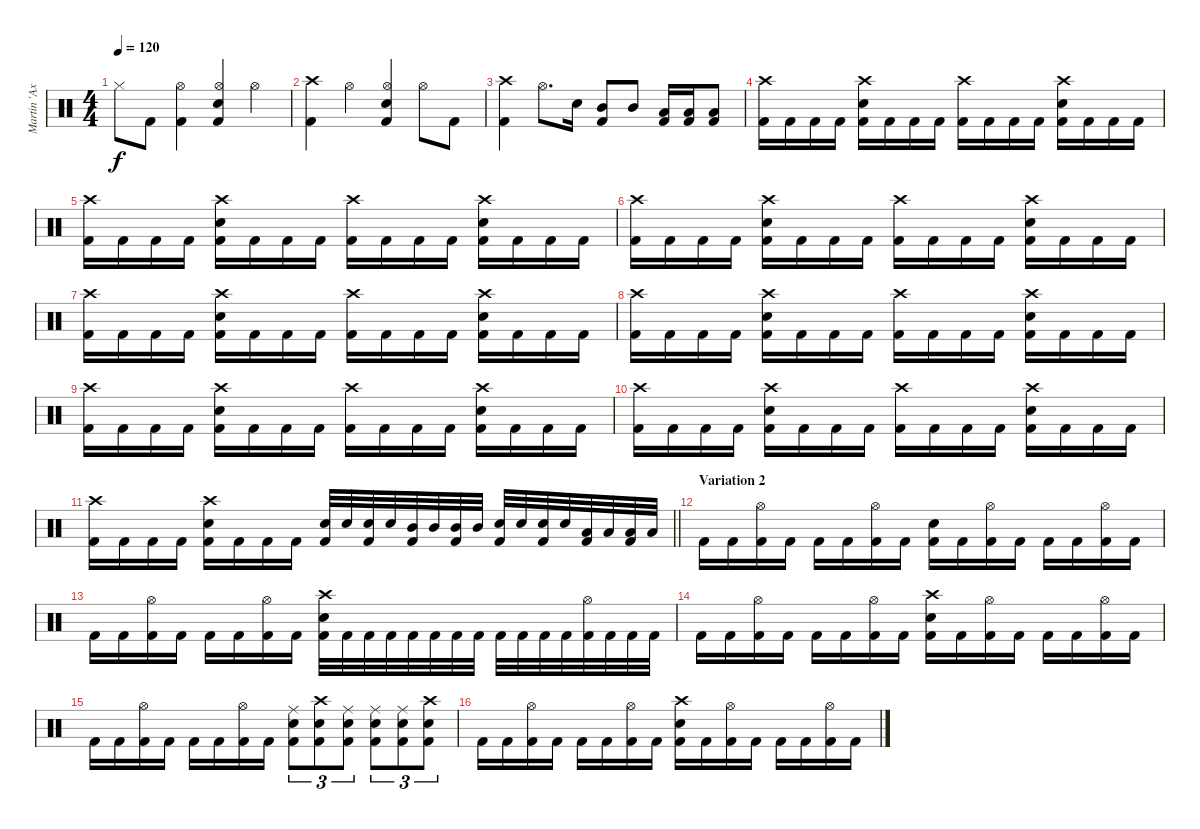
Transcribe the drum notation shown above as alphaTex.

\track ("Martin 'Axe' Axenrot" "Martin 'Ax") {instrument percussion}
\staff {score}
\articulation defaults
\ts (4 4)
\tempo 120
\clef neutral
\ks c "Hi-Hat (closed)".8{dy f} "Kick (hit) 2".8
("Hi-Hat (open)" "Kick (hit) 2").4 ("Hi-Hat (open)" "Snare (hit) 2" "Kick (hit) 2").4 "Hi-Hat (open)".4 |
("Crash high (hit)" "Kick (hit) 2").4 "Hi-Hat (open)".4 ("Hi-Hat (open)" "Snare (hit) 2" "Kick (hit) 2").4 "Hi-Hat (open)".8 "Kick (hit) 2".8 |
("Crash high (hit)" "Kick (hit) 2").4 "Hi-Hat (open)".8{d} "Snare (hit) 2".16 ("Mid Tom (hit)" "Kick (hit) 2").8 "Mid Tom (hit)".8 ("Low Tom (hit)" "Kick (hit) 2").16 ("Low Tom (hit)" "Kick (hit) 2").16 ("Low Tom (hit)" "Kick (hit) 2").8 |
("Crash high (hit)" "Kick (hit) 2").16 "Kick (hit) 2".16 "Kick (hit) 2".16 "Kick (hit) 2".16 ("Crash high (hit)" "Snare (hit) 2" "Kick (hit) 2").16 "Kick (hit) 2".16 "Kick (hit) 2".16 "Kick (hit) 2".16 ("Crash high (hit)" "Kick (hit) 2").16 "Kick (hit) 2".16 "Kick (hit) 2".16 "Kick (hit) 2".16 ("Crash high (hit)" "Snare (hit) 2" "Kick (hit) 2").16 "Kick (hit) 2".16 "Kick (hit) 2".16 "Kick (hit) 2".16 |
("Crash high (hit)" "Kick (hit) 2").16 "Kick (hit) 2".16 "Kick (hit) 2".16 "Kick (hit) 2".16 ("Crash high (hit)" "Snare (hit) 2" "Kick (hit) 2").16 "Kick (hit) 2".16 "Kick (hit) 2".16 "Kick (hit) 2".16 ("Crash high (hit)" "Kick (hit) 2").16 "Kick (hit) 2".16 "Kick (hit) 2".16 "Kick (hit) 2".16 ("Crash high (hit)" "Snare (hit) 2" "Kick (hit) 2").16 "Kick (hit) 2".16 "Kick (hit) 2".16 "Kick (hit) 2".16 |
("Crash high (hit)" "Kick (hit) 2").16 "Kick (hit) 2".16 "Kick (hit) 2".16 "Kick (hit) 2".16 ("Crash high (hit)" "Snare (hit) 2" "Kick (hit) 2").16 "Kick (hit) 2".16 "Kick (hit) 2".16 "Kick (hit) 2".16 ("Crash high (hit)" "Kick (hit) 2").16 "Kick (hit) 2".16 "Kick (hit) 2".16 "Kick (hit) 2".16 ("Crash high (hit)" "Snare (hit) 2" "Kick (hit) 2").16 "Kick (hit) 2".16 "Kick (hit) 2".16 "Kick (hit) 2".16 |
("Crash high (hit)" "Kick (hit) 2").16 "Kick (hit) 2".16 "Kick (hit) 2".16 "Kick (hit) 2".16 ("Crash high (hit)" "Snare (hit) 2" "Kick (hit) 2").16 "Kick (hit) 2".16 "Kick (hit) 2".16 "Kick (hit) 2".16 ("Crash high (hit)" "Kick (hit) 2").16 "Kick (hit) 2".16 "Kick (hit) 2".16 "Kick (hit) 2".16 ("Crash high (hit)" "Snare (hit) 2" "Kick (hit) 2").16 "Kick (hit) 2".16 "Kick (hit) 2".16 "Kick (hit) 2".16 |
("Crash high (hit)" "Kick (hit) 2").16 "Kick (hit) 2".16 "Kick (hit) 2".16 "Kick (hit) 2".16 ("Crash high (hit)" "Snare (hit) 2" "Kick (hit) 2").16 "Kick (hit) 2".16 "Kick (hit) 2".16 "Kick (hit) 2".16 ("Crash high (hit)" "Kick (hit) 2").16 "Kick (hit) 2".16 "Kick (hit) 2".16 "Kick (hit) 2".16 ("Crash high (hit)" "Snare (hit) 2" "Kick (hit) 2").16 "Kick (hit) 2".16 "Kick (hit) 2".16 "Kick (hit) 2".16 |
("Crash high (hit)" "Kick (hit) 2").16 "Kick (hit) 2".16 "Kick (hit) 2".16 "Kick (hit) 2".16 ("Crash high (hit)" "Snare (hit) 2" "Kick (hit) 2").16 "Kick (hit) 2".16 "Kick (hit) 2".16 "Kick (hit) 2".16 ("Crash high (hit)" "Kick (hit) 2").16 "Kick (hit) 2".16 "Kick (hit) 2".16 "Kick (hit) 2".16 ("Crash high (hit)" "Snare (hit) 2" "Kick (hit) 2").16 "Kick (hit) 2".16 "Kick (hit) 2".16 "Kick (hit) 2".16 |
("Crash high (hit)" "Kick (hit) 2").16 "Kick (hit) 2".16 "Kick (hit) 2".16 "Kick (hit) 2".16 ("Crash high (hit)" "Snare (hit) 2" "Kick (hit) 2").16 "Kick (hit) 2".16 "Kick (hit) 2".16 "Kick (hit) 2".16 ("Crash high (hit)" "Kick (hit) 2").16 "Kick (hit) 2".16 "Kick (hit) 2".16 "Kick (hit) 2".16 ("Crash high (hit)" "Snare (hit) 2" "Kick (hit) 2").16 "Kick (hit) 2".16 "Kick (hit) 2".16 "Kick (hit) 2".16 |
\barLineRight lightlight
("Crash high (hit)" "Kick (hit) 2").16 "Kick (hit) 2".16 "Kick (hit) 2".16 "Kick (hit) 2".16 ("Crash high (hit)" "Snare (hit) 2" "Kick (hit) 2").16 "Kick (hit) 2".16 "Kick (hit) 2".16 "Kick (hit) 2".16 ("Snare (hit) 2" "Kick (hit) 2").32 "Snare (hit) 2".32 ("Snare (hit) 2" "Kick (hit) 2").32 "Snare (hit) 2".32 ("Mid Tom (hit)" "Kick (hit) 2").32 "Mid Tom (hit)".32 ("Mid Tom (hit)" "Kick (hit) 2").32 "Mid Tom (hit)".32 ("Snare (hit) 2" "Kick (hit) 2").32 "Snare (hit) 2".32 ("Snare (hit) 2" "Kick (hit) 2").32 "Snare (hit) 2".32 ("Low Tom (hit)" "Kick (hit) 2").32 "Low Tom (hit)".32 ("Low Tom (hit)" "Kick (hit) 2").32 "Low Tom (hit)".32 |
\section ("" "Variation 2")
"Kick (hit) 2".16 "Kick (hit) 2".16 ("Hi-Hat (open)" "Kick (hit) 2").16 "Kick (hit) 2".16 "Kick (hit) 2".16 "Kick (hit) 2".16 ("Hi-Hat (open)" "Kick (hit) 2").16 "Kick (hit) 2".16 ("Snare (hit) 2" "Kick (hit) 2").16 "Kick (hit) 2".16 ("Hi-Hat (open)" "Kick (hit) 2").16 "Kick (hit) 2".16 "Kick (hit) 2".16 "Kick (hit) 2".16 ("Hi-Hat (open)" "Kick (hit) 2").16 "Kick (hit) 2".16 |
"Kick (hit) 2".16 "Kick (hit) 2".16 ("Hi-Hat (open)" "Kick (hit) 2").16 "Kick (hit) 2".16 "Kick (hit) 2".16 "Kick (hit) 2".16 ("Hi-Hat (open)" "Kick (hit) 2").16 "Kick (hit) 2".16 ("Crash high (hit)" "Snare (hit) 2" "Kick (hit) 2").32 "Kick (hit) 2".32 "Kick (hit) 2".32 "Kick (hit) 2".32 "Kick (hit) 2".32 "Kick (hit) 2".32 "Kick (hit) 2".32 "Kick (hit) 2".32 "Kick (hit) 2".32 "Kick (hit) 2".32 "Kick (hit) 2".32 "Kick (hit) 2".32 ("Hi-Hat (open)" "Kick (hit) 2").32 "Kick (hit) 2".32 "Kick (hit) 2".32 "Kick (hit) 2".32 |
"Kick (hit) 2".16 "Kick (hit) 2".16 ("Hi-Hat (open)" "Kick (hit) 2").16 "Kick (hit) 2".16 "Kick (hit) 2".16 "Kick (hit) 2".16 ("Hi-Hat (open)" "Kick (hit) 2").16 "Kick (hit) 2".16 ("Crash high (hit)" "Snare (hit) 2" "Kick (hit) 2").16 "Kick (hit) 2".16 ("Hi-Hat (open)" "Kick (hit) 2").16 "Kick (hit) 2".16 "Kick (hit) 2".16 "Kick (hit) 2".16 ("Hi-Hat (open)" "Kick (hit) 2").16 "Kick (hit) 2".16 |
"Kick (hit) 2".16 "Kick (hit) 2".16 ("Hi-Hat (open)" "Kick (hit) 2").16 "Kick (hit) 2".16 "Kick (hit) 2".16 "Kick (hit) 2".16 ("Hi-Hat (open)" "Kick (hit) 2").16 "Kick (hit) 2".16 ("Snare (hit) 2" "Ride (middle)" "Kick (hit) 2").8{tu (3 2)} ("Snare (hit) 2" "Crash high (hit)" "Kick (hit) 2").8{tu (3 2)} ("Snare (hit) 2" "Ride (middle)" "Kick (hit) 2").8{tu (3 2)} ("Snare (hit) 2" "Ride (middle)" "Kick (hit) 2").8{tu (3 2)} ("Snare (hit) 2" "Ride (middle)" "Kick (hit) 2").8{tu (3 2)} ("Snare (hit) 2" "Crash high (hit)" "Kick (hit) 2").8{tu (3 2)} |
"Kick (hit) 2".16 "Kick (hit) 2".16 ("Hi-Hat (open)" "Kick (hit) 2").16 "Kick (hit) 2".16 "Kick (hit) 2".16 "Kick (hit) 2".16 ("Hi-Hat (open)" "Kick (hit) 2").16 "Kick (hit) 2".16 ("Crash high (hit)" "Snare (hit) 2" "Kick (hit) 2").16 "Kick (hit) 2".16 ("Hi-Hat (open)" "Kick (hit) 2").16 "Kick (hit) 2".16 "Kick (hit) 2".16 "Kick (hit) 2".16 ("Hi-Hat (open)" "Kick (hit) 2").16 "Kick (hit) 2".16
